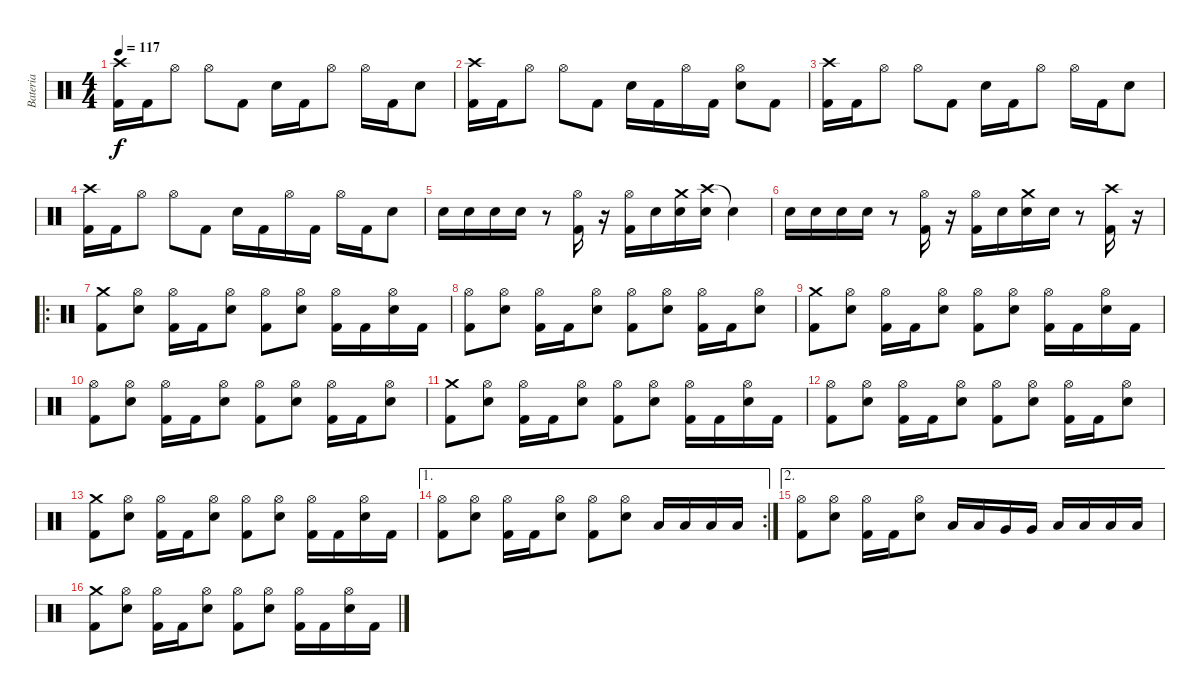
\track ("Bateria" "Bateria") {instrument percussion}
\staff {score}
\articulation defaults
\ts (4 4)
\tempo 117
\clef neutral
\ks c
("Crash high (hit)" "Kick (hit) 2").16{dy f} "Kick (hit) 2".16 "Hi-Hat (open)".8 "Hi-Hat (open)".8 "Kick (hit) 2".8 "Electric Snare (hit)".16 "Kick (hit) 2".16 "Hi-Hat (open)".8 "Hi-Hat (open)".16 "Kick (hit) 2".16 "Electric Snare (hit)".8 |
("Crash high (hit)" "Kick (hit) 2").16 "Kick (hit) 2".16 "Hi-Hat (open)".8 "Hi-Hat (open)".8 "Kick (hit) 2".8 "Electric Snare (hit)".16 "Kick (hit) 2".16 "Hi-Hat (open)".16 "Kick (hit) 2".16 ("Hi-Hat (open)" "Electric Snare (hit)").8 "Kick (hit) 2".8 |
("Crash high (hit)" "Kick (hit) 2").16 "Kick (hit) 2".16 "Hi-Hat (open)".8 "Hi-Hat (open)".8 "Kick (hit) 2".8 "Electric Snare (hit)".16 "Kick (hit) 2".16 "Hi-Hat (open)".8 "Hi-Hat (open)".16 "Kick (hit) 2".16 "Electric Snare (hit)".8 |
("Crash high (hit)" "Kick (hit) 2").16 "Kick (hit) 2".16 "Hi-Hat (open)".8 "Hi-Hat (open)".8 "Kick (hit) 2".8 "Electric Snare (hit)".16 "Kick (hit) 2".16 "Hi-Hat (open)".16 "Kick (hit) 2".16 "Hi-Hat (open)".16 "Kick (hit) 2".16 "Electric Snare (hit)".8 |
"Electric Snare (hit)".16 "Electric Snare (hit)".16 "Electric Snare (hit)".16 "Electric Snare (hit)".16 r.8 ("Hi-Hat (open)" "Kick (hit) 2").16 r.16 ("Hi-Hat (open)" "Kick (hit) 2").16 "Electric Snare (hit)".16 ("Crash medium (hit)" "Electric Snare (hit)").16 ("Crash high (hit)" "Electric Snare (hit)").16 "Snare (hit)"{t}.4 |
"Electric Snare (hit)".16 "Electric Snare (hit)".16 "Electric Snare (hit)".16 "Electric Snare (hit)".16 r.8 ("Hi-Hat (open)" "Kick (hit) 2").16 r.16 ("Hi-Hat (open)" "Kick (hit) 2").16 "Electric Snare (hit)".16 ("Crash medium (hit)" "Electric Snare (hit)").16 "Electric Snare (hit)".16 r.8 ("Crash high (hit)" "Kick (hit) 2").16 r.16 |
\ro
("Crash medium (hit)" "Kick (hit) 2").8 ("Hi-Hat (open)" "Electric Snare (hit)").8 ("Hi-Hat (open)" "Kick (hit) 2").16 "Kick (hit) 2".16 ("Hi-Hat (open)" "Electric Snare (hit)").8 ("Hi-Hat (open)" "Kick (hit) 2").8 ("Hi-Hat (open)" "Electric Snare (hit)").8 ("Hi-Hat (open)" "Kick (hit) 2").16 "Kick (hit) 2".16 ("Hi-Hat (open)" "Electric Snare (hit)").16 "Kick (hit) 2".16 |
("Hi-Hat (open)" "Kick (hit) 2").8 ("Hi-Hat (open)" "Electric Snare (hit)").8 ("Hi-Hat (open)" "Kick (hit) 2").16 "Kick (hit) 2".16 ("Hi-Hat (open)" "Electric Snare (hit)").8 ("Hi-Hat (open)" "Kick (hit) 2").8 ("Hi-Hat (open)" "Electric Snare (hit)").8 ("Hi-Hat (open)" "Kick (hit) 2").16 "Kick (hit) 2".16 ("Hi-Hat (open)" "Electric Snare (hit)").8 |
("Crash medium (hit)" "Kick (hit) 2").8 ("Hi-Hat (open)" "Electric Snare (hit)").8 ("Hi-Hat (open)" "Kick (hit) 2").16 "Kick (hit) 2".16 ("Hi-Hat (open)" "Electric Snare (hit)").8 ("Hi-Hat (open)" "Kick (hit) 2").8 ("Hi-Hat (open)" "Electric Snare (hit)").8 ("Hi-Hat (open)" "Kick (hit) 2").16 "Kick (hit) 2".16 ("Hi-Hat (open)" "Electric Snare (hit)").16 "Kick (hit) 2".16 |
("Hi-Hat (open)" "Kick (hit) 2").8 ("Hi-Hat (open)" "Electric Snare (hit)").8 ("Hi-Hat (open)" "Kick (hit) 2").16 "Kick (hit) 2".16 ("Hi-Hat (open)" "Electric Snare (hit)").8 ("Hi-Hat (open)" "Kick (hit) 2").8 ("Hi-Hat (open)" "Electric Snare (hit)").8 ("Hi-Hat (open)" "Kick (hit) 2").16 "Kick (hit) 2".16 ("Hi-Hat (open)" "Electric Snare (hit)").8 |
("Crash medium (hit)" "Kick (hit) 2").8 ("Hi-Hat (open)" "Electric Snare (hit)").8 ("Hi-Hat (open)" "Kick (hit) 2").16 "Kick (hit) 2".16 ("Hi-Hat (open)" "Electric Snare (hit)").8 ("Hi-Hat (open)" "Kick (hit) 2").8 ("Hi-Hat (open)" "Electric Snare (hit)").8 ("Hi-Hat (open)" "Kick (hit) 2").16 "Kick (hit) 2".16 ("Hi-Hat (open)" "Electric Snare (hit)").16 "Kick (hit) 2".16 |
("Hi-Hat (open)" "Kick (hit) 2").8 ("Hi-Hat (open)" "Electric Snare (hit)").8 ("Hi-Hat (open)" "Kick (hit) 2").16 "Kick (hit) 2".16 ("Hi-Hat (open)" "Electric Snare (hit)").8 ("Hi-Hat (open)" "Kick (hit) 2").8 ("Hi-Hat (open)" "Electric Snare (hit)").8 ("Hi-Hat (open)" "Kick (hit) 2").16 "Kick (hit) 2".16 ("Hi-Hat (open)" "Electric Snare (hit)").8 |
("Crash medium (hit)" "Kick (hit) 2").8 ("Hi-Hat (open)" "Electric Snare (hit)").8 ("Hi-Hat (open)" "Kick (hit) 2").16 "Kick (hit) 2".16 ("Hi-Hat (open)" "Electric Snare (hit)").8 ("Hi-Hat (open)" "Kick (hit) 2").8 ("Hi-Hat (open)" "Electric Snare (hit)").8 ("Hi-Hat (open)" "Kick (hit) 2").16 "Kick (hit) 2".16 ("Hi-Hat (open)" "Electric Snare (hit)").16 "Kick (hit) 2".16 |
\ae 1
\rc 2
("Hi-Hat (open)" "Kick (hit) 2").8 ("Hi-Hat (open)" "Electric Snare (hit)").8 ("Hi-Hat (open)" "Kick (hit) 2").16 "Kick (hit) 2".16 ("Hi-Hat (open)" "Electric Snare (hit)").8 ("Hi-Hat (open)" "Kick (hit) 2").8 ("Hi-Hat (open)" "Electric Snare (hit)").8 "Low Tom (hit)".16 "Low Tom (hit)".16 "Low Tom (hit)".16 "Low Tom (hit)".16 |
\ae 2
("Hi-Hat (open)" "Kick (hit) 2").8 ("Hi-Hat (open)" "Electric Snare (hit)").8 ("Hi-Hat (open)" "Kick (hit) 2").16 "Kick (hit) 2".16 ("Hi-Hat (open)" "Electric Snare (hit)").8 "Low Floor Tom (hit)".16 "Low Floor Tom (hit)".16 "Very Low Tom (hit)".16 "Very Low Tom (hit)".16 "Low Tom (hit)".16 "Low Tom (hit)".16 "Low Tom (hit)".16 "Low Tom (hit)".16 |
("Crash medium (hit)" "Kick (hit) 2").8 ("Hi-Hat (open)" "Electric Snare (hit)").8 ("Hi-Hat (open)" "Kick (hit) 2").16 "Kick (hit) 2".16 ("Hi-Hat (open)" "Electric Snare (hit)").8 ("Hi-Hat (open)" "Kick (hit) 2").8 ("Hi-Hat (open)" "Electric Snare (hit)").8 ("Hi-Hat (open)" "Kick (hit) 2").16 "Kick (hit) 2".16 ("Hi-Hat (open)" "Electric Snare (hit)").16 "Kick (hit) 2".16
